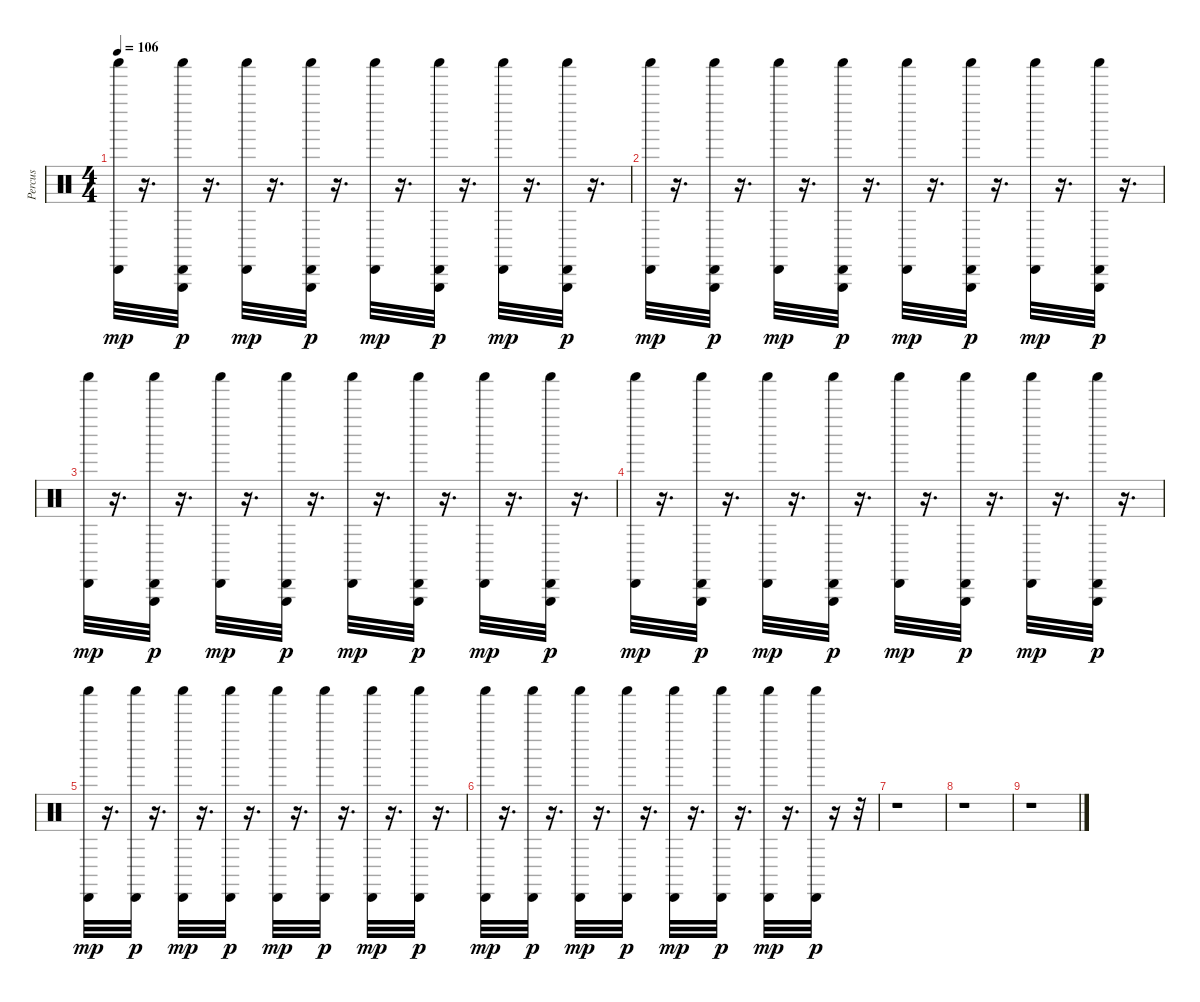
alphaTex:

\track ("Percus" "Percus") {instrument percussion}
\staff {score}
\articulation defaults
\ts (4 4)
\tempo 106
\clef neutral
\ks c
("Shaker (hit)" "Cabasa (hit)").32{dy mp} r.16{d} ("Triangle (hit)" "Shaker (hit)" "Cabasa (hit)").32{dy p} r.16{d} ("Shaker (hit)" "Cabasa (hit)").32{dy mp} r.16{d} ("Triangle (hit)" "Shaker (hit)" "Cabasa (hit)").32{dy p} r.16{d} ("Shaker (hit)" "Cabasa (hit)").32{dy mp} r.16{d} ("Triangle (hit)" "Shaker (hit)" "Cabasa (hit)").32{dy p} r.16{d} ("Shaker (hit)" "Cabasa (hit)").32{dy mp} r.16{d} ("Triangle (hit)" "Shaker (hit)" "Cabasa (hit)").32{dy p} r.16{d} |
("Shaker (hit)" "Cabasa (hit)").32{dy mp} r.16{d} ("Triangle (hit)" "Shaker (hit)" "Cabasa (hit)").32{dy p} r.16{d} ("Shaker (hit)" "Cabasa (hit)").32{dy mp} r.16{d} ("Triangle (hit)" "Shaker (hit)" "Cabasa (hit)").32{dy p} r.16{d} ("Shaker (hit)" "Cabasa (hit)").32{dy mp} r.16{d} ("Triangle (hit)" "Shaker (hit)" "Cabasa (hit)").32{dy p} r.16{d} ("Shaker (hit)" "Cabasa (hit)").32{dy mp} r.16{d} ("Triangle (hit)" "Shaker (hit)" "Cabasa (hit)").32{dy p} r.16{d} |
("Shaker (hit)" "Cabasa (hit)").32{dy mp} r.16{d} ("Triangle (hit)" "Shaker (hit)" "Cabasa (hit)").32{dy p} r.16{d} ("Shaker (hit)" "Cabasa (hit)").32{dy mp} r.16{d} ("Triangle (hit)" "Shaker (hit)" "Cabasa (hit)").32{dy p} r.16{d} ("Shaker (hit)" "Cabasa (hit)").32{dy mp} r.16{d} ("Triangle (hit)" "Shaker (hit)" "Cabasa (hit)").32{dy p} r.16{d} ("Shaker (hit)" "Cabasa (hit)").32{dy mp} r.16{d} ("Triangle (hit)" "Shaker (hit)" "Cabasa (hit)").32{dy p} r.16{d} |
("Shaker (hit)" "Cabasa (hit)").32{dy mp} r.16{d} ("Triangle (hit)" "Shaker (hit)" "Cabasa (hit)").32{dy p} r.16{d} ("Shaker (hit)" "Cabasa (hit)").32{dy mp} r.16{d} ("Triangle (hit)" "Shaker (hit)" "Cabasa (hit)").32{dy p} r.16{d} ("Shaker (hit)" "Cabasa (hit)").32{dy mp} r.16{d} ("Triangle (hit)" "Shaker (hit)" "Cabasa (hit)").32{dy p} r.16{d} ("Shaker (hit)" "Cabasa (hit)").32{dy mp} r.16{d} ("Triangle (hit)" "Shaker (hit)" "Cabasa (hit)").32{dy p} r.16{d} |
("Shaker (hit)" "Cabasa (hit)").32{dy mp} r.16{d} ("Shaker (hit)" "Cabasa (hit)").32{dy p} r.16{d} ("Shaker (hit)" "Cabasa (hit)").32{dy mp} r.16{d} ("Shaker (hit)" "Cabasa (hit)").32{dy p} r.16{d} ("Shaker (hit)" "Cabasa (hit)").32{dy mp} r.16{d} ("Shaker (hit)" "Cabasa (hit)").32{dy p} r.16{d} ("Shaker (hit)" "Cabasa (hit)").32{dy mp} r.16{d} ("Shaker (hit)" "Cabasa (hit)").32{dy p} r.16{d} |
("Shaker (hit)" "Cabasa (hit)").32{dy mp} r.16{d} ("Shaker (hit)" "Cabasa (hit)").32{dy p} r.16{d} ("Shaker (hit)" "Cabasa (hit)").32{dy mp} r.16{d} ("Shaker (hit)" "Cabasa (hit)").32{dy p} r.16{d} ("Shaker (hit)" "Cabasa (hit)").32{dy mp} r.16{d} ("Shaker (hit)" "Cabasa (hit)").32{dy p} r.16{d} ("Shaker (hit)" "Cabasa (hit)").32{dy mp} r.16{d} ("Shaker (hit)" "Cabasa (hit)").32{dy p} r.16 r.32 |
r.1 |
r.1 |
r.1
